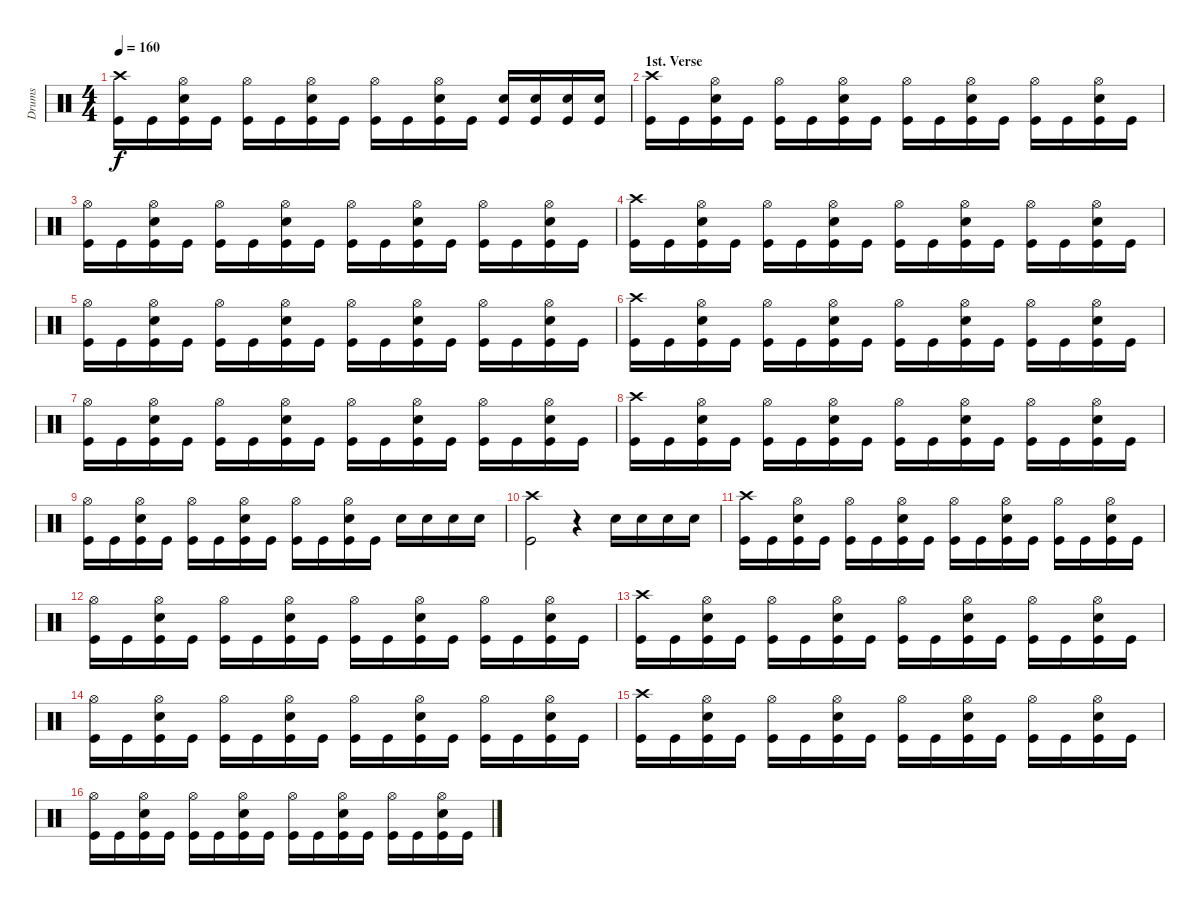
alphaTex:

\track ("Drums" "Drums") {instrument percussion}
\staff {score}
\articulation defaults
\ts (4 4)
\tempo 160
\clef neutral
\ks c
("Crash high (hit)" "Kick (hit)").16{dy f} "Kick (hit)".16 ("Hi-Hat (open)" "Electric Snare (hit)" "Kick (hit)").16 "Kick (hit)".16 ("Hi-Hat (open)" "Kick (hit)").16 "Kick (hit)".16 ("Hi-Hat (open)" "Electric Snare (hit)" "Kick (hit)").16 "Kick (hit)".16 ("Hi-Hat (open)" "Kick (hit)").16 "Kick (hit)".16 ("Hi-Hat (open)" "Electric Snare (hit)" "Kick (hit)").16 "Kick (hit)".16 ("Electric Snare (hit)" "Kick (hit)").16 ("Electric Snare (hit)" "Kick (hit)").16 ("Electric Snare (hit)" "Kick (hit)").16 ("Electric Snare (hit)" "Kick (hit)").16 |
\section ("" "1st. Verse")
("Crash high (hit)" "Kick (hit)").16 "Kick (hit)".16 ("Hi-Hat (open)" "Electric Snare (hit)" "Kick (hit)").16 "Kick (hit)".16 ("Hi-Hat (open)" "Kick (hit)").16 "Kick (hit)".16 ("Hi-Hat (open)" "Electric Snare (hit)" "Kick (hit)").16 "Kick (hit)".16 ("Hi-Hat (open)" "Kick (hit)").16 "Kick (hit)".16 ("Hi-Hat (open)" "Electric Snare (hit)" "Kick (hit)").16 "Kick (hit)".16 ("Hi-Hat (open)" "Kick (hit)").16 "Kick (hit)".16 ("Hi-Hat (open)" "Electric Snare (hit)" "Kick (hit)").16 "Kick (hit)".16 |
("Hi-Hat (open)" "Kick (hit)").16 "Kick (hit)".16 ("Hi-Hat (open)" "Electric Snare (hit)" "Kick (hit)").16 "Kick (hit)".16 ("Hi-Hat (open)" "Kick (hit)").16 "Kick (hit)".16 ("Hi-Hat (open)" "Electric Snare (hit)" "Kick (hit)").16 "Kick (hit)".16 ("Hi-Hat (open)" "Kick (hit)").16 "Kick (hit)".16 ("Hi-Hat (open)" "Electric Snare (hit)" "Kick (hit)").16 "Kick (hit)".16 ("Hi-Hat (open)" "Kick (hit)").16 "Kick (hit)".16 ("Hi-Hat (open)" "Electric Snare (hit)" "Kick (hit)").16 "Kick (hit)".16 |
("Crash high (hit)" "Kick (hit)").16 "Kick (hit)".16 ("Hi-Hat (open)" "Electric Snare (hit)" "Kick (hit)").16 "Kick (hit)".16 ("Hi-Hat (open)" "Kick (hit)").16 "Kick (hit)".16 ("Hi-Hat (open)" "Electric Snare (hit)" "Kick (hit)").16 "Kick (hit)".16 ("Hi-Hat (open)" "Kick (hit)").16 "Kick (hit)".16 ("Hi-Hat (open)" "Electric Snare (hit)" "Kick (hit)").16 "Kick (hit)".16 ("Hi-Hat (open)" "Kick (hit)").16 "Kick (hit)".16 ("Hi-Hat (open)" "Electric Snare (hit)" "Kick (hit)").16 "Kick (hit)".16 |
("Hi-Hat (open)" "Kick (hit)").16 "Kick (hit)".16 ("Hi-Hat (open)" "Electric Snare (hit)" "Kick (hit)").16 "Kick (hit)".16 ("Hi-Hat (open)" "Kick (hit)").16 "Kick (hit)".16 ("Hi-Hat (open)" "Electric Snare (hit)" "Kick (hit)").16 "Kick (hit)".16 ("Hi-Hat (open)" "Kick (hit)").16 "Kick (hit)".16 ("Hi-Hat (open)" "Electric Snare (hit)" "Kick (hit)").16 "Kick (hit)".16 ("Hi-Hat (open)" "Kick (hit)").16 "Kick (hit)".16 ("Hi-Hat (open)" "Electric Snare (hit)" "Kick (hit)").16 "Kick (hit)".16 |
("Crash high (hit)" "Kick (hit)").16 "Kick (hit)".16 ("Hi-Hat (open)" "Electric Snare (hit)" "Kick (hit)").16 "Kick (hit)".16 ("Hi-Hat (open)" "Kick (hit)").16 "Kick (hit)".16 ("Hi-Hat (open)" "Electric Snare (hit)" "Kick (hit)").16 "Kick (hit)".16 ("Hi-Hat (open)" "Kick (hit)").16 "Kick (hit)".16 ("Hi-Hat (open)" "Electric Snare (hit)" "Kick (hit)").16 "Kick (hit)".16 ("Hi-Hat (open)" "Kick (hit)").16 "Kick (hit)".16 ("Hi-Hat (open)" "Electric Snare (hit)" "Kick (hit)").16 "Kick (hit)".16 |
("Hi-Hat (open)" "Kick (hit)").16 "Kick (hit)".16 ("Hi-Hat (open)" "Electric Snare (hit)" "Kick (hit)").16 "Kick (hit)".16 ("Hi-Hat (open)" "Kick (hit)").16 "Kick (hit)".16 ("Hi-Hat (open)" "Electric Snare (hit)" "Kick (hit)").16 "Kick (hit)".16 ("Hi-Hat (open)" "Kick (hit)").16 "Kick (hit)".16 ("Hi-Hat (open)" "Electric Snare (hit)" "Kick (hit)").16 "Kick (hit)".16 ("Hi-Hat (open)" "Kick (hit)").16 "Kick (hit)".16 ("Hi-Hat (open)" "Electric Snare (hit)" "Kick (hit)").16 "Kick (hit)".16 |
("Crash high (hit)" "Kick (hit)").16 "Kick (hit)".16 ("Hi-Hat (open)" "Electric Snare (hit)" "Kick (hit)").16 "Kick (hit)".16 ("Hi-Hat (open)" "Kick (hit)").16 "Kick (hit)".16 ("Hi-Hat (open)" "Electric Snare (hit)" "Kick (hit)").16 "Kick (hit)".16 ("Hi-Hat (open)" "Kick (hit)").16 "Kick (hit)".16 ("Hi-Hat (open)" "Electric Snare (hit)" "Kick (hit)").16 "Kick (hit)".16 ("Hi-Hat (open)" "Kick (hit)").16 "Kick (hit)".16 ("Hi-Hat (open)" "Electric Snare (hit)" "Kick (hit)").16 "Kick (hit)".16 |
("Hi-Hat (open)" "Kick (hit)").16 "Kick (hit)".16 ("Hi-Hat (open)" "Electric Snare (hit)" "Kick (hit)").16 "Kick (hit)".16 ("Hi-Hat (open)" "Kick (hit)").16 "Kick (hit)".16 ("Hi-Hat (open)" "Electric Snare (hit)" "Kick (hit)").16 "Kick (hit)".16 ("Hi-Hat (open)" "Kick (hit)").16 "Kick (hit)".16 ("Hi-Hat (open)" "Electric Snare (hit)" "Kick (hit)").16 "Kick (hit)".16 "Electric Snare (hit)".16 "Electric Snare (hit)".16 "Electric Snare (hit)".16 "Electric Snare (hit)".16 |
("Crash high (hit)" "Kick (hit)").2 r.4 "Electric Snare (hit)".16 "Electric Snare (hit)".16 "Electric Snare (hit)".16 "Electric Snare (hit)".16 |
("Crash high (hit)" "Kick (hit)").16 "Kick (hit)".16 ("Hi-Hat (open)" "Electric Snare (hit)" "Kick (hit)").16 "Kick (hit)".16 ("Hi-Hat (open)" "Kick (hit)").16 "Kick (hit)".16 ("Hi-Hat (open)" "Electric Snare (hit)" "Kick (hit)").16 "Kick (hit)".16 ("Hi-Hat (open)" "Kick (hit)").16 "Kick (hit)".16 ("Hi-Hat (open)" "Electric Snare (hit)" "Kick (hit)").16 "Kick (hit)".16 ("Hi-Hat (open)" "Kick (hit)").16 "Kick (hit)".16 ("Hi-Hat (open)" "Electric Snare (hit)" "Kick (hit)").16 "Kick (hit)".16 |
("Hi-Hat (open)" "Kick (hit)").16 "Kick (hit)".16 ("Hi-Hat (open)" "Electric Snare (hit)" "Kick (hit)").16 "Kick (hit)".16 ("Hi-Hat (open)" "Kick (hit)").16 "Kick (hit)".16 ("Hi-Hat (open)" "Electric Snare (hit)" "Kick (hit)").16 "Kick (hit)".16 ("Hi-Hat (open)" "Kick (hit)").16 "Kick (hit)".16 ("Hi-Hat (open)" "Electric Snare (hit)" "Kick (hit)").16 "Kick (hit)".16 ("Hi-Hat (open)" "Kick (hit)").16 "Kick (hit)".16 ("Hi-Hat (open)" "Electric Snare (hit)" "Kick (hit)").16 "Kick (hit)".16 |
("Crash high (hit)" "Kick (hit)").16 "Kick (hit)".16 ("Hi-Hat (open)" "Electric Snare (hit)" "Kick (hit)").16 "Kick (hit)".16 ("Hi-Hat (open)" "Kick (hit)").16 "Kick (hit)".16 ("Hi-Hat (open)" "Electric Snare (hit)" "Kick (hit)").16 "Kick (hit)".16 ("Hi-Hat (open)" "Kick (hit)").16 "Kick (hit)".16 ("Hi-Hat (open)" "Electric Snare (hit)" "Kick (hit)").16 "Kick (hit)".16 ("Hi-Hat (open)" "Kick (hit)").16 "Kick (hit)".16 ("Hi-Hat (open)" "Electric Snare (hit)" "Kick (hit)").16 "Kick (hit)".16 |
("Hi-Hat (open)" "Kick (hit)").16 "Kick (hit)".16 ("Hi-Hat (open)" "Electric Snare (hit)" "Kick (hit)").16 "Kick (hit)".16 ("Hi-Hat (open)" "Kick (hit)").16 "Kick (hit)".16 ("Hi-Hat (open)" "Electric Snare (hit)" "Kick (hit)").16 "Kick (hit)".16 ("Hi-Hat (open)" "Kick (hit)").16 "Kick (hit)".16 ("Hi-Hat (open)" "Electric Snare (hit)" "Kick (hit)").16 "Kick (hit)".16 ("Hi-Hat (open)" "Kick (hit)").16 "Kick (hit)".16 ("Hi-Hat (open)" "Electric Snare (hit)" "Kick (hit)").16 "Kick (hit)".16 |
("Crash high (hit)" "Kick (hit)").16 "Kick (hit)".16 ("Hi-Hat (open)" "Electric Snare (hit)" "Kick (hit)").16 "Kick (hit)".16 ("Hi-Hat (open)" "Kick (hit)").16 "Kick (hit)".16 ("Hi-Hat (open)" "Electric Snare (hit)" "Kick (hit)").16 "Kick (hit)".16 ("Hi-Hat (open)" "Kick (hit)").16 "Kick (hit)".16 ("Hi-Hat (open)" "Electric Snare (hit)" "Kick (hit)").16 "Kick (hit)".16 ("Hi-Hat (open)" "Kick (hit)").16 "Kick (hit)".16 ("Hi-Hat (open)" "Electric Snare (hit)" "Kick (hit)").16 "Kick (hit)".16 |
("Hi-Hat (open)" "Kick (hit)").16 "Kick (hit)".16 ("Hi-Hat (open)" "Electric Snare (hit)" "Kick (hit)").16 "Kick (hit)".16 ("Hi-Hat (open)" "Kick (hit)").16 "Kick (hit)".16 ("Hi-Hat (open)" "Electric Snare (hit)" "Kick (hit)").16 "Kick (hit)".16 ("Hi-Hat (open)" "Kick (hit)").16 "Kick (hit)".16 ("Hi-Hat (open)" "Electric Snare (hit)" "Kick (hit)").16 "Kick (hit)".16 ("Hi-Hat (open)" "Kick (hit)").16 "Kick (hit)".16 ("Hi-Hat (open)" "Electric Snare (hit)" "Kick (hit)").16 "Kick (hit)".16
